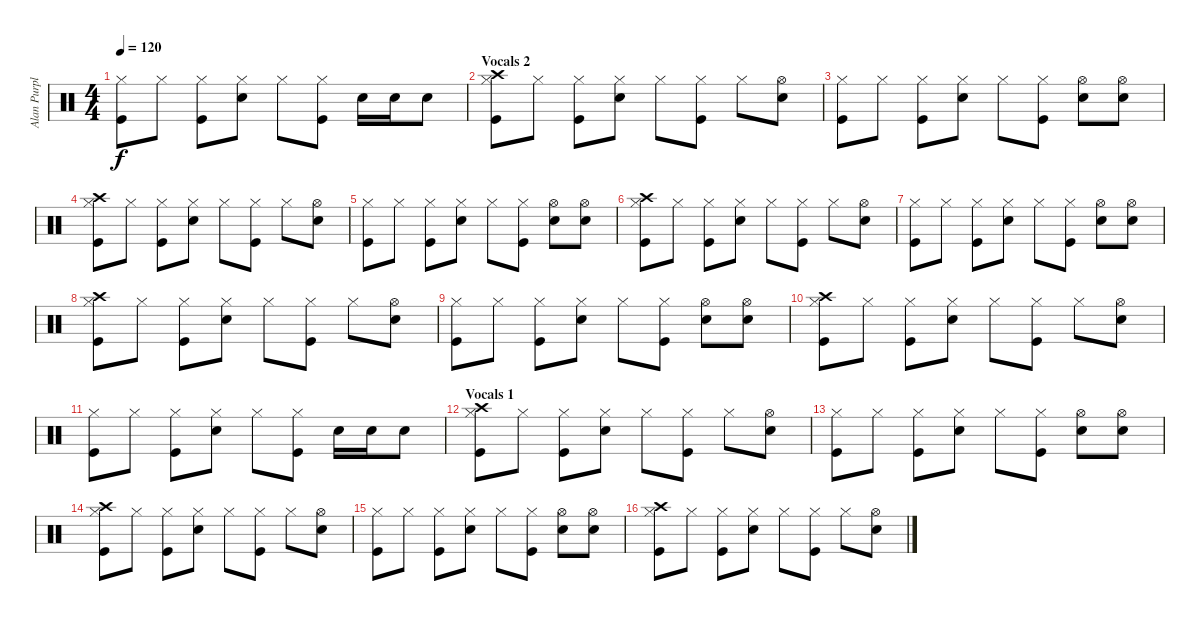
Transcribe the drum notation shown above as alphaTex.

\track ("Alan Purple" "Alan Purpl") {instrument percussion}
\staff {score}
\articulation defaults
\ts (4 4)
\tempo 120
\clef neutral
\ks c
("Hi-Hat (closed)" "Kick (hit)").8{dy f} "Hi-Hat (closed)".8 ("Hi-Hat (closed)" "Kick (hit)").8 ("Hi-Hat (closed)" "Snare (hit) 2").8 "Hi-Hat (closed)".8 ("Hi-Hat (closed)" "Kick (hit)").8 "Electric Snare (hit)".16 "Electric Snare (hit)".16 "Electric Snare (hit)".8 |
\section ("" "Vocals 2")
("Crash high (hit)" "Hi-Hat (closed)" "Kick (hit)").8 "Hi-Hat (closed)".8 ("Hi-Hat (closed)" "Kick (hit)").8 ("Hi-Hat (closed)" "Snare (hit) 2").8 "Hi-Hat (closed)".8 ("Hi-Hat (closed)" "Kick (hit)").8 "Hi-Hat (closed)".8 ("Hi-Hat (open)" "Snare (hit) 2").8 |
("Hi-Hat (closed)" "Kick (hit)").8 "Hi-Hat (closed)".8 ("Hi-Hat (closed)" "Kick (hit)").8 ("Hi-Hat (closed)" "Snare (hit) 2").8 "Hi-Hat (closed)".8 ("Hi-Hat (closed)" "Kick (hit)").8 ("Hi-Hat (open)" "Electric Snare (hit)").8 ("Hi-Hat (open)" "Snare (hit) 2").8 |
("Crash high (hit)" "Hi-Hat (closed)" "Kick (hit)").8 "Hi-Hat (closed)".8 ("Hi-Hat (closed)" "Kick (hit)").8 ("Hi-Hat (closed)" "Snare (hit) 2").8 "Hi-Hat (closed)".8 ("Hi-Hat (closed)" "Kick (hit)").8 "Hi-Hat (closed)".8 ("Hi-Hat (open)" "Snare (hit) 2").8 |
("Hi-Hat (closed)" "Kick (hit)").8 "Hi-Hat (closed)".8 ("Hi-Hat (closed)" "Kick (hit)").8 ("Hi-Hat (closed)" "Snare (hit) 2").8 "Hi-Hat (closed)".8 ("Hi-Hat (closed)" "Kick (hit)").8 ("Hi-Hat (open)" "Electric Snare (hit)").8 ("Hi-Hat (open)" "Snare (hit) 2").8 |
("Crash high (hit)" "Hi-Hat (closed)" "Kick (hit)").8 "Hi-Hat (closed)".8 ("Hi-Hat (closed)" "Kick (hit)").8 ("Hi-Hat (closed)" "Snare (hit) 2").8 "Hi-Hat (closed)".8 ("Hi-Hat (closed)" "Kick (hit)").8 "Hi-Hat (closed)".8 ("Hi-Hat (open)" "Snare (hit) 2").8 |
("Hi-Hat (closed)" "Kick (hit)").8 "Hi-Hat (closed)".8 ("Hi-Hat (closed)" "Kick (hit)").8 ("Hi-Hat (closed)" "Snare (hit) 2").8 "Hi-Hat (closed)".8 ("Hi-Hat (closed)" "Kick (hit)").8 ("Hi-Hat (open)" "Electric Snare (hit)").8 ("Hi-Hat (open)" "Snare (hit) 2").8 |
("Crash high (hit)" "Hi-Hat (closed)" "Kick (hit)").8 "Hi-Hat (closed)".8 ("Hi-Hat (closed)" "Kick (hit)").8 ("Hi-Hat (closed)" "Snare (hit) 2").8 "Hi-Hat (closed)".8 ("Hi-Hat (closed)" "Kick (hit)").8 "Hi-Hat (closed)".8 ("Hi-Hat (open)" "Snare (hit) 2").8 |
("Hi-Hat (closed)" "Kick (hit)").8 "Hi-Hat (closed)".8 ("Hi-Hat (closed)" "Kick (hit)").8 ("Hi-Hat (closed)" "Snare (hit) 2").8 "Hi-Hat (closed)".8 ("Hi-Hat (closed)" "Kick (hit)").8 ("Hi-Hat (open)" "Electric Snare (hit)").8 ("Hi-Hat (open)" "Snare (hit) 2").8 |
("Crash high (hit)" "Hi-Hat (closed)" "Kick (hit)").8 "Hi-Hat (closed)".8 ("Hi-Hat (closed)" "Kick (hit)").8 ("Hi-Hat (closed)" "Snare (hit) 2").8 "Hi-Hat (closed)".8 ("Hi-Hat (closed)" "Kick (hit)").8 "Hi-Hat (closed)".8 ("Hi-Hat (open)" "Snare (hit) 2").8 |
("Hi-Hat (closed)" "Kick (hit)").8 "Hi-Hat (closed)".8 ("Hi-Hat (closed)" "Kick (hit)").8 ("Hi-Hat (closed)" "Snare (hit) 2").8 "Hi-Hat (closed)".8 ("Hi-Hat (closed)" "Kick (hit)").8 "Electric Snare (hit)".16 "Electric Snare (hit)".16 "Electric Snare (hit)".8 |
\section ("" "Vocals 1")
("Crash high (hit)" "Hi-Hat (closed)" "Kick (hit)").8 "Hi-Hat (closed)".8 ("Hi-Hat (closed)" "Kick (hit)").8 ("Hi-Hat (closed)" "Snare (hit) 2").8 "Hi-Hat (closed)".8 ("Hi-Hat (closed)" "Kick (hit)").8 "Hi-Hat (closed)".8 ("Hi-Hat (open)" "Snare (hit) 2").8 |
("Hi-Hat (closed)" "Kick (hit)").8 "Hi-Hat (closed)".8 ("Hi-Hat (closed)" "Kick (hit)").8 ("Hi-Hat (closed)" "Snare (hit) 2").8 "Hi-Hat (closed)".8 ("Hi-Hat (closed)" "Kick (hit)").8 ("Hi-Hat (open)" "Electric Snare (hit)").8 ("Hi-Hat (open)" "Snare (hit) 2").8 |
("Crash high (hit)" "Hi-Hat (closed)" "Kick (hit)").8 "Hi-Hat (closed)".8 ("Hi-Hat (closed)" "Kick (hit)").8 ("Hi-Hat (closed)" "Snare (hit) 2").8 "Hi-Hat (closed)".8 ("Hi-Hat (closed)" "Kick (hit)").8 "Hi-Hat (closed)".8 ("Hi-Hat (open)" "Snare (hit) 2").8 |
("Hi-Hat (closed)" "Kick (hit)").8 "Hi-Hat (closed)".8 ("Hi-Hat (closed)" "Kick (hit)").8 ("Hi-Hat (closed)" "Snare (hit) 2").8 "Hi-Hat (closed)".8 ("Hi-Hat (closed)" "Kick (hit)").8 ("Hi-Hat (open)" "Electric Snare (hit)").8 ("Hi-Hat (open)" "Snare (hit) 2").8 |
("Crash high (hit)" "Hi-Hat (closed)" "Kick (hit)").8 "Hi-Hat (closed)".8 ("Hi-Hat (closed)" "Kick (hit)").8 ("Hi-Hat (closed)" "Snare (hit) 2").8 "Hi-Hat (closed)".8 ("Hi-Hat (closed)" "Kick (hit)").8 "Hi-Hat (closed)".8 ("Hi-Hat (open)" "Snare (hit) 2").8
